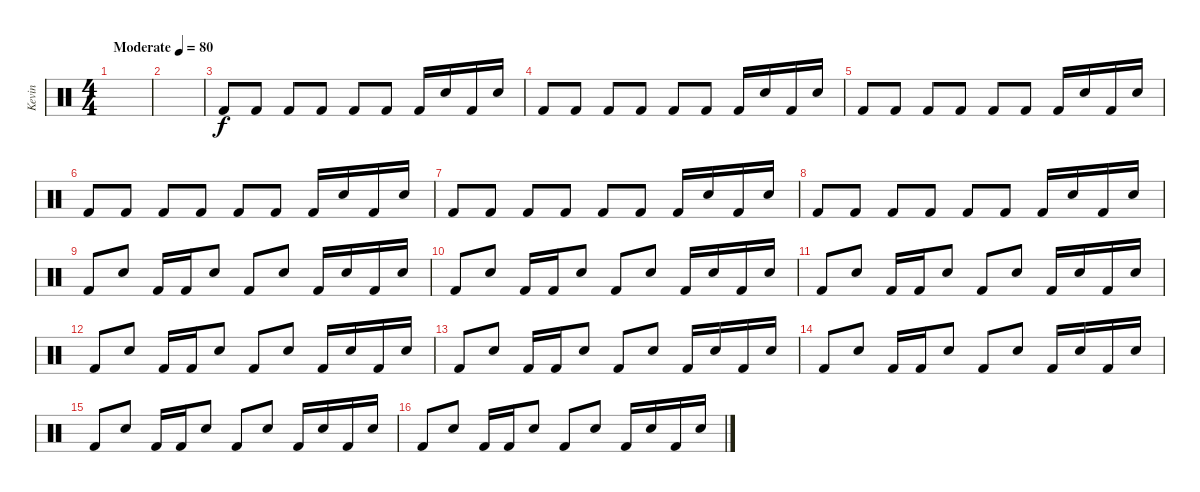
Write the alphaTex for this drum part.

\track ("Kevin" "Kevin") {instrument percussion}
\staff {score}
\articulation defaults
\ts (4 4)
\tempo (80 "Moderate")
\clef neutral
\ks c
|
|
"Kick (hit) 2".8 "Kick (hit) 2".8 "Kick (hit) 2".8 "Kick (hit) 2".8 "Kick (hit) 2".8 "Kick (hit) 2".8 "Kick (hit) 2".16 "Snare (hit) 2".16 "Kick (hit) 2".16 "Snare (hit) 2".16 |
"Kick (hit) 2".8 "Kick (hit) 2".8 "Kick (hit) 2".8 "Kick (hit) 2".8 "Kick (hit) 2".8 "Kick (hit) 2".8 "Kick (hit) 2".16 "Snare (hit) 2".16 "Kick (hit) 2".16 "Snare (hit) 2".16 |
"Kick (hit) 2".8 "Kick (hit) 2".8 "Kick (hit) 2".8 "Kick (hit) 2".8 "Kick (hit) 2".8 "Kick (hit) 2".8 "Kick (hit) 2".16 "Snare (hit) 2".16 "Kick (hit) 2".16 "Snare (hit) 2".16 |
"Kick (hit) 2".8 "Kick (hit) 2".8 "Kick (hit) 2".8 "Kick (hit) 2".8 "Kick (hit) 2".8 "Kick (hit) 2".8 "Kick (hit) 2".16 "Snare (hit) 2".16 "Kick (hit) 2".16 "Snare (hit) 2".16 |
"Kick (hit) 2".8 "Kick (hit) 2".8 "Kick (hit) 2".8 "Kick (hit) 2".8 "Kick (hit) 2".8 "Kick (hit) 2".8 "Kick (hit) 2".16 "Snare (hit) 2".16 "Kick (hit) 2".16 "Snare (hit) 2".16 |
"Kick (hit) 2".8 "Kick (hit) 2".8 "Kick (hit) 2".8 "Kick (hit) 2".8 "Kick (hit) 2".8 "Kick (hit) 2".8 "Kick (hit) 2".16 "Snare (hit) 2".16 "Kick (hit) 2".16 "Snare (hit) 2".16 |
"Kick (hit) 2".8 "Snare (hit) 2".8 "Kick (hit) 2".16 "Kick (hit) 2".16 "Snare (hit) 2".8 "Kick (hit) 2".8 "Snare (hit) 2".8 "Kick (hit) 2".16 "Snare (hit) 2".16 "Kick (hit) 2".16 "Snare (hit) 2".16 |
"Kick (hit) 2".8 "Snare (hit) 2".8 "Kick (hit) 2".16 "Kick (hit) 2".16 "Snare (hit) 2".8 "Kick (hit) 2".8 "Snare (hit) 2".8 "Kick (hit) 2".16 "Snare (hit) 2".16 "Kick (hit) 2".16 "Snare (hit) 2".16 |
"Kick (hit) 2".8 "Snare (hit) 2".8 "Kick (hit) 2".16 "Kick (hit) 2".16 "Snare (hit) 2".8 "Kick (hit) 2".8 "Snare (hit) 2".8 "Kick (hit) 2".16 "Snare (hit) 2".16 "Kick (hit) 2".16 "Snare (hit) 2".16 |
"Kick (hit) 2".8 "Snare (hit) 2".8 "Kick (hit) 2".16 "Kick (hit) 2".16 "Snare (hit) 2".8 "Kick (hit) 2".8 "Snare (hit) 2".8 "Kick (hit) 2".16 "Snare (hit) 2".16 "Kick (hit) 2".16 "Snare (hit) 2".16 |
"Kick (hit) 2".8 "Snare (hit) 2".8 "Kick (hit) 2".16 "Kick (hit) 2".16 "Snare (hit) 2".8 "Kick (hit) 2".8 "Snare (hit) 2".8 "Kick (hit) 2".16 "Snare (hit) 2".16 "Kick (hit) 2".16 "Snare (hit) 2".16 |
"Kick (hit) 2".8 "Snare (hit) 2".8 "Kick (hit) 2".16 "Kick (hit) 2".16 "Snare (hit) 2".8 "Kick (hit) 2".8 "Snare (hit) 2".8 "Kick (hit) 2".16 "Snare (hit) 2".16 "Kick (hit) 2".16 "Snare (hit) 2".16 |
"Kick (hit) 2".8 "Snare (hit) 2".8 "Kick (hit) 2".16 "Kick (hit) 2".16 "Snare (hit) 2".8 "Kick (hit) 2".8 "Snare (hit) 2".8 "Kick (hit) 2".16 "Snare (hit) 2".16 "Kick (hit) 2".16 "Snare (hit) 2".16 |
"Kick (hit) 2".8 "Snare (hit) 2".8 "Kick (hit) 2".16 "Kick (hit) 2".16 "Snare (hit) 2".8 "Kick (hit) 2".8 "Snare (hit) 2".8 "Kick (hit) 2".16 "Snare (hit) 2".16 "Kick (hit) 2".16 "Snare (hit) 2".16
